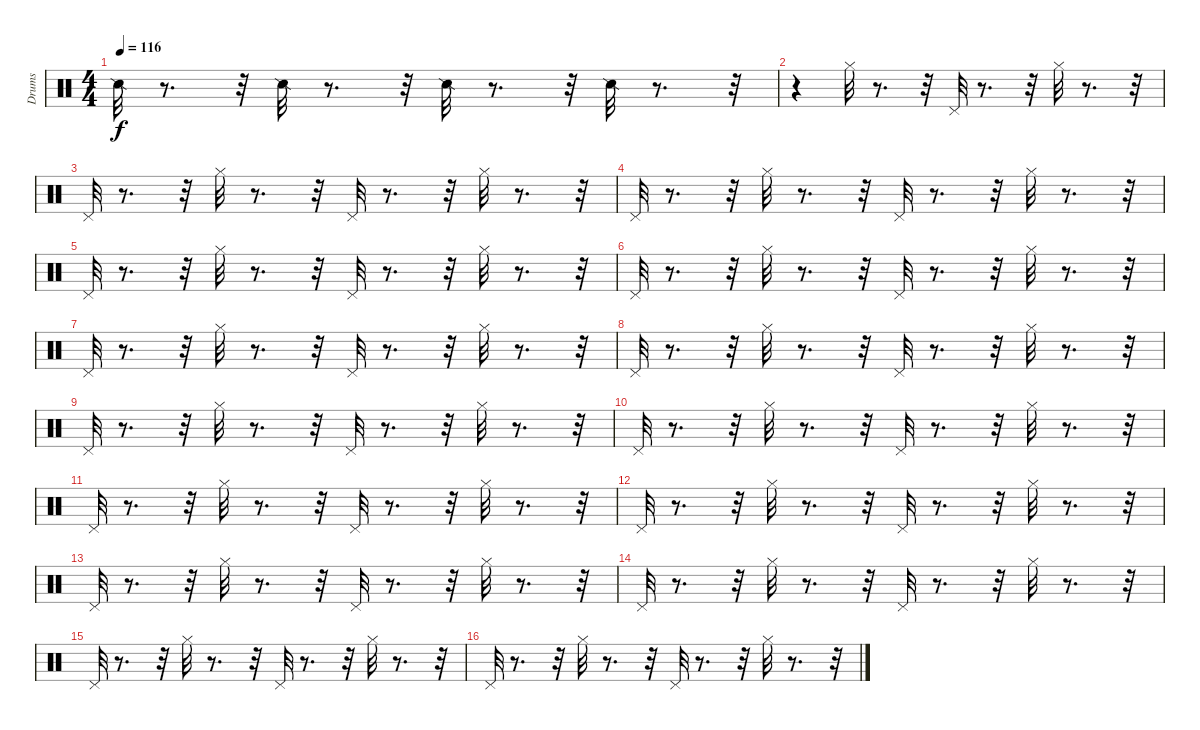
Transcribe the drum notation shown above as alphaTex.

\track ("Drums" "Drums") {instrument percussion}
\staff {score}
\articulation defaults
\ts (4 4)
\tempo 116
\clef neutral
\ks c "Snare (side stick) 2".32{dy f}
r.8{d} r.32 "Snare (side stick) 2".32 r.8{d} r.32 "Snare (side stick) 2".32 r.8{d} r.32 "Snare (side stick) 2".32 r.8{d} r.32 |
r.4 "Hi-Hat (closed)".32 r.8{d} r.32 "Pedal Hi-Hat (hit)".32 r.8{d} r.32 "Hi-Hat (closed)".32 r.8{d} r.32 |
"Pedal Hi-Hat (hit)".32 r.8{d} r.32 "Hi-Hat (closed)".32 r.8{d} r.32 "Pedal Hi-Hat (hit)".32 r.8{d} r.32 "Hi-Hat (closed)".32 r.8{d} r.32 |
"Pedal Hi-Hat (hit)".32 r.8{d} r.32 "Hi-Hat (closed)".32 r.8{d} r.32 "Pedal Hi-Hat (hit)".32 r.8{d} r.32 "Hi-Hat (closed)".32 r.8{d} r.32 |
"Pedal Hi-Hat (hit)".32 r.8{d} r.32 "Hi-Hat (closed)".32 r.8{d} r.32 "Pedal Hi-Hat (hit)".32 r.8{d} r.32 "Hi-Hat (closed)".32 r.8{d} r.32 |
"Pedal Hi-Hat (hit)".32 r.8{d} r.32 "Hi-Hat (closed)".32 r.8{d} r.32 "Pedal Hi-Hat (hit)".32 r.8{d} r.32 "Hi-Hat (closed)".32 r.8{d} r.32 |
"Pedal Hi-Hat (hit)".32 r.8{d} r.32 "Hi-Hat (closed)".32 r.8{d} r.32 "Pedal Hi-Hat (hit)".32 r.8{d} r.32 "Hi-Hat (closed)".32 r.8{d} r.32 |
"Pedal Hi-Hat (hit)".32 r.8{d} r.32 "Hi-Hat (closed)".32 r.8{d} r.32 "Pedal Hi-Hat (hit)".32 r.8{d} r.32 "Hi-Hat (closed)".32 r.8{d} r.32 |
"Pedal Hi-Hat (hit)".32 r.8{d} r.32 "Hi-Hat (closed)".32 r.8{d} r.32 "Pedal Hi-Hat (hit)".32 r.8{d} r.32 "Hi-Hat (closed)".32 r.8{d} r.32 |
"Pedal Hi-Hat (hit)".32 r.8{d} r.32 "Hi-Hat (closed)".32 r.8{d} r.32 "Pedal Hi-Hat (hit)".32 r.8{d} r.32 "Hi-Hat (closed)".32 r.8{d} r.32 |
"Pedal Hi-Hat (hit)".32 r.8{d} r.32 "Hi-Hat (closed)".32 r.8{d} r.32 "Pedal Hi-Hat (hit)".32 r.8{d} r.32 "Hi-Hat (closed)".32 r.8{d} r.32 |
"Pedal Hi-Hat (hit)".32 r.8{d} r.32 "Hi-Hat (closed)".32 r.8{d} r.32 "Pedal Hi-Hat (hit)".32 r.8{d} r.32 "Hi-Hat (closed)".32 r.8{d} r.32 |
"Pedal Hi-Hat (hit)".32 r.8{d} r.32 "Hi-Hat (closed)".32 r.8{d} r.32 "Pedal Hi-Hat (hit)".32 r.8{d} r.32 "Hi-Hat (closed)".32 r.8{d} r.32 |
"Pedal Hi-Hat (hit)".32 r.8{d} r.32 "Hi-Hat (closed)".32 r.8{d} r.32 "Pedal Hi-Hat (hit)".32 r.8{d} r.32 "Hi-Hat (closed)".32 r.8{d} r.32 |
"Pedal Hi-Hat (hit)".32 r.8{d} r.32 "Hi-Hat (closed)".32 r.8{d} r.32 "Pedal Hi-Hat (hit)".32 r.8{d} r.32 "Hi-Hat (closed)".32 r.8{d} r.32 |
"Pedal Hi-Hat (hit)".32 r.8{d} r.32 "Hi-Hat (closed)".32 r.8{d} r.32 "Pedal Hi-Hat (hit)".32 r.8{d} r.32 "Hi-Hat (closed)".32 r.8{d} r.32
